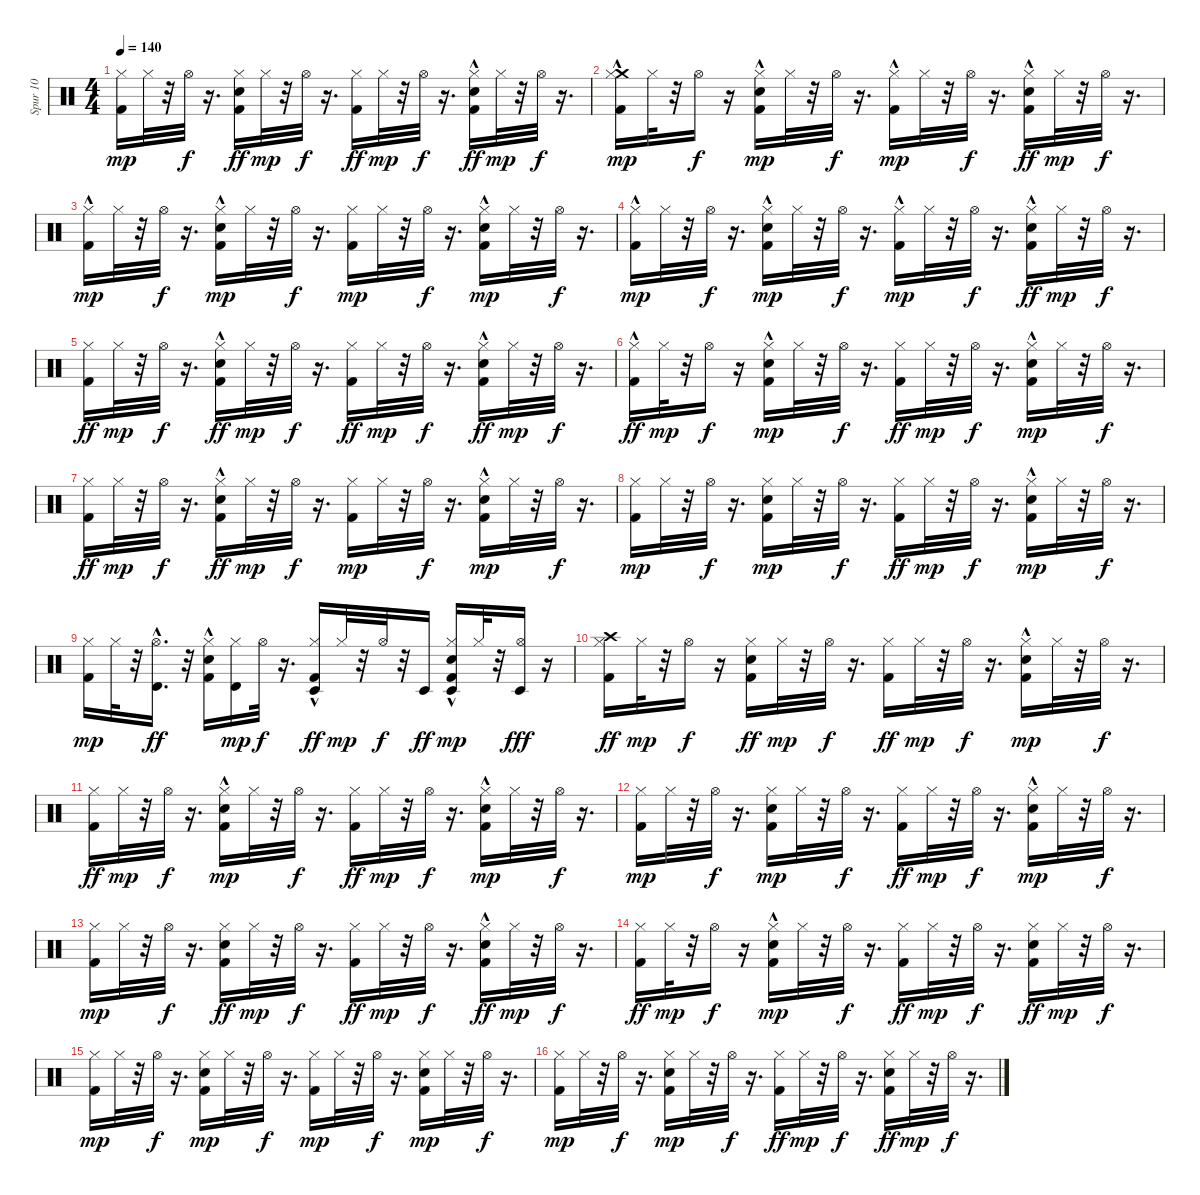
\track ("Spur 10" "Spur 10") {instrument percussion}
\staff {score}
\articulation defaults
\ts (4 4)
\tempo 140
\clef neutral
\ks c
("Kick (hit) 2" "Hi-Hat (closed)").16{dy mp} "Hi-Hat (closed)".32 r.32 "Hi-Hat (open)".32{dy f} r.16{d} ("Hi-Hat (closed)" "Kick (hit) 2" "Electric Snare (hit)").16{dy ff} "Hi-Hat (closed)".32{dy mp} r.32 "Hi-Hat (open)".32{dy f} r.16{d} ("Hi-Hat (closed)" "Kick (hit) 2").16{dy ff} "Hi-Hat (closed)".32{dy mp} r.32 "Hi-Hat (open)".32{dy f} r.16{d} ("Hi-Hat (closed)" "Electric Snare (hit)"{hac} "Kick (hit) 2").16{dy ff} "Hi-Hat (closed)".32{dy mp} r.32 "Hi-Hat (open)".32{dy f} r.16{d} |
("Crash medium (hit)" "Kick (hit) 2"{hac} "Hi-Hat (closed)").16{dy mp} "Hi-Hat (closed)".32 r.32 "Hi-Hat (open)".16{dy f} r.16 ("Kick (hit) 2"{hac} "Electric Snare (hit)"{hac} "Hi-Hat (closed)").16{dy mp} "Hi-Hat (closed)".32 r.32 "Hi-Hat (open)".32{dy f} r.16{d} ("Kick (hit) 2"{hac} "Hi-Hat (closed)").16{dy mp} "Hi-Hat (closed)".32 r.32 "Hi-Hat (open)".32{dy f} r.16{d} ("Electric Snare (hit)" "Hi-Hat (closed)" "Kick (hit) 2"{hac}).16{dy ff} "Hi-Hat (closed)".32{dy mp} r.32 "Hi-Hat (open)".32{dy f} r.16{d} |
("Kick (hit) 2"{hac} "Hi-Hat (closed)").16{dy mp} "Hi-Hat (closed)".32 r.32 "Hi-Hat (open)".32{dy f} r.16{d} ("Kick (hit) 2"{hac} "Hi-Hat (closed)" "Electric Snare (hit)"{hac}).16{dy mp} "Hi-Hat (closed)".32 r.32 "Hi-Hat (open)".32{dy f} r.16{d} ("Kick (hit) 2" "Hi-Hat (closed)").16{dy mp} "Hi-Hat (closed)".32 r.32 "Hi-Hat (open)".32{dy f} r.16{d} ("Electric Snare (hit)"{hac} "Kick (hit) 2"{hac} "Hi-Hat (closed)").16{dy mp} "Hi-Hat (closed)".32 r.32 "Hi-Hat (open)".32{dy f} r.16{d} |
("Kick (hit) 2"{hac} "Hi-Hat (closed)").16{dy mp} "Hi-Hat (closed)".32 r.32 "Hi-Hat (open)".32{dy f} r.16{d} ("Electric Snare (hit)" "Kick (hit) 2"{hac} "Hi-Hat (closed)").16{dy mp} "Hi-Hat (closed)".32 r.32 "Hi-Hat (open)".32{dy f} r.16{d} ("Kick (hit) 2"{hac} "Hi-Hat (closed)").16{dy mp} "Hi-Hat (closed)".32 r.32 "Hi-Hat (open)".32{dy f} r.16{d} ("Hi-Hat (closed)" "Kick (hit) 2" "Electric Snare (hit)"{hac}).16{dy ff} "Hi-Hat (closed)".32{dy mp} r.32 "Hi-Hat (open)".32{dy f} r.16{d} |
("Hi-Hat (closed)" "Kick (hit) 2").16{dy ff} "Hi-Hat (closed)".32{dy mp} r.32 "Hi-Hat (open)".32{dy f} r.16{d} ("Hi-Hat (closed)" "Electric Snare (hit)"{hac} "Kick (hit) 2").16{dy ff} "Hi-Hat (closed)".32{dy mp} r.32 "Hi-Hat (open)".32{dy f} r.16{d} ("Hi-Hat (closed)" "Kick (hit) 2").16{dy ff} "Hi-Hat (closed)".32{dy mp} r.32 "Hi-Hat (open)".32{dy f} r.16{d} ("Hi-Hat (closed)" "Kick (hit) 2"{hac} "Electric Snare (hit)"{hac}).16{dy ff} "Hi-Hat (closed)".32{dy mp} r.32 "Hi-Hat (open)".32{dy f} r.16{d} |
("Hi-Hat (closed)" "Kick (hit) 2"{hac}).16{dy ff} "Hi-Hat (closed)".32{dy mp} r.32 "Hi-Hat (open)".16{dy f} r.16 ("Electric Snare (hit)"{hac} "Kick (hit) 2"{hac} "Hi-Hat (closed)").16{dy mp} "Hi-Hat (closed)".32 r.32 "Hi-Hat (open)".32{dy f} r.16{d} ("Hi-Hat (closed)" "Kick (hit) 2").16{dy ff} "Hi-Hat (closed)".32{dy mp} r.32 "Hi-Hat (open)".32{dy f} r.16{d} ("Kick (hit) 2"{hac} "Hi-Hat (closed)" "Electric Snare (hit)"{hac}).16{dy mp} "Hi-Hat (closed)".32 r.32 "Hi-Hat (open)".32{dy f} r.16{d} |
("Hi-Hat (closed)" "Kick (hit) 2").16{dy ff} "Hi-Hat (closed)".32{dy mp} r.32 "Hi-Hat (open)".32{dy f} r.16{d} ("Hi-Hat (closed)" "Electric Snare (hit)"{hac} "Kick (hit) 2").16{dy ff} "Hi-Hat (closed)".32{dy mp} r.32 "Hi-Hat (open)".32{dy f} r.16{d} ("Kick (hit) 2" "Hi-Hat (closed)").16{dy mp} "Hi-Hat (closed)".32 r.32 "Hi-Hat (open)".32{dy f} r.16{d} ("Kick (hit) 2" "Electric Snare (hit)"{hac} "Hi-Hat (closed)").16{dy mp} "Hi-Hat (closed)".32 r.32 "Hi-Hat (open)".32{dy f} r.16{d} |
("Kick (hit) 2" "Hi-Hat (closed)").16{dy mp} "Hi-Hat (closed)".32 r.32 "Hi-Hat (open)".32{dy f} r.16{d} ("Kick (hit) 2" "Electric Snare (hit)" "Hi-Hat (closed)").16{dy mp} "Hi-Hat (closed)".32 r.32 "Hi-Hat (open)".32{dy f} r.16{d} ("Hi-Hat (closed)" "Kick (hit) 2").16{dy ff} "Hi-Hat (closed)".32{dy mp} r.32 "Hi-Hat (open)".32{dy f} r.16{d} ("Kick (hit) 2" "Hi-Hat (closed)" "Electric Snare (hit)"{hac}).16{dy mp} "Hi-Hat (closed)".32 r.32 "Hi-Hat (open)".32{dy f} r.16{d} |
("Kick (hit) 2" "Hi-Hat (closed)").16{dy mp} "Hi-Hat (closed)".32 r.32 ("Hi-Hat (open)" "Timbale high (hit)"{hac}).16{d dy ff} r.32 ("Hi-Hat (closed)" "Electric Snare (hit)"{hac} "Kick (hit) 2").16 ("Hi-Hat (closed)" "Timbale high (hit)").16{dy mp} "Hi-Hat (open)".32{dy f} r.16{d} ("Timbale low (hit)"{hac} "Hi-Hat (closed)" "Kick (hit) 2").16{dy ff} "Hi-Hat (closed)".32{dy mp} r.32 "Hi-Hat (open)".32{dy f} r.32 "Timbale low (hit)".16{dy ff} ("Kick (hit) 2" "Timbale low (hit)" "Electric Snare (hit)"{hac} "Hi-Hat (closed)").16{dy mp} "Hi-Hat (closed)".32 r.32 ("Timbale low (hit)" "Hi-Hat (open)").16{dy fff} r.16 |
("Hi-Hat (closed)" "Kick (hit) 2" "Crash high (hit)").16{dy ff} "Hi-Hat (closed)".32{dy mp} r.32 "Hi-Hat (open)".16{dy f} r.16 ("Electric Snare (hit)" "Hi-Hat (closed)" "Kick (hit) 2").16{dy ff} "Hi-Hat (closed)".32{dy mp} r.32 "Hi-Hat (open)".32{dy f} r.16{d} ("Hi-Hat (closed)" "Kick (hit) 2").16{dy ff} "Hi-Hat (closed)".32{dy mp} r.32 "Hi-Hat (open)".32{dy f} r.16{d} ("Kick (hit) 2" "Electric Snare (hit)"{hac} "Hi-Hat (closed)").16{dy mp} "Hi-Hat (closed)".32 r.32 "Hi-Hat (open)".32{dy f} r.16{d} |
("Hi-Hat (closed)" "Kick (hit) 2").16{dy ff} "Hi-Hat (closed)".32{dy mp} r.32 "Hi-Hat (open)".32{dy f} r.16{d} ("Kick (hit) 2" "Hi-Hat (closed)" "Electric Snare (hit)"{hac}).16{dy mp} "Hi-Hat (closed)".32 r.32 "Hi-Hat (open)".32{dy f} r.16{d} ("Hi-Hat (closed)" "Kick (hit) 2").16{dy ff} "Hi-Hat (closed)".32{dy mp} r.32 "Hi-Hat (open)".32{dy f} r.16{d} ("Kick (hit) 2" "Electric Snare (hit)"{hac} "Hi-Hat (closed)").16{dy mp} "Hi-Hat (closed)".32 r.32 "Hi-Hat (open)".32{dy f} r.16{d} |
("Kick (hit) 2" "Hi-Hat (closed)").16{dy mp} "Hi-Hat (closed)".32 r.32 "Hi-Hat (open)".32{dy f} r.16{d} ("Kick (hit) 2" "Hi-Hat (closed)" "Electric Snare (hit)").16{dy mp} "Hi-Hat (closed)".32 r.32 "Hi-Hat (open)".32{dy f} r.16{d} ("Hi-Hat (closed)" "Kick (hit) 2").16{dy ff} "Hi-Hat (closed)".32{dy mp} r.32 "Hi-Hat (open)".32{dy f} r.16{d} ("Kick (hit) 2" "Hi-Hat (closed)" "Electric Snare (hit)"{hac}).16{dy mp} "Hi-Hat (closed)".32 r.32 "Hi-Hat (open)".32{dy f} r.16{d} |
("Kick (hit) 2" "Hi-Hat (closed)").16{dy mp} "Hi-Hat (closed)".32 r.32 "Hi-Hat (open)".32{dy f} r.16{d} ("Hi-Hat (closed)" "Electric Snare (hit)" "Kick (hit) 2").16{dy ff} "Hi-Hat (closed)".32{dy mp} r.32 "Hi-Hat (open)".32{dy f} r.16{d} ("Hi-Hat (closed)" "Kick (hit) 2").16{dy ff} "Hi-Hat (closed)".32{dy mp} r.32 "Hi-Hat (open)".32{dy f} r.16{d} ("Hi-Hat (closed)" "Electric Snare (hit)"{hac} "Kick (hit) 2").16{dy ff} "Hi-Hat (closed)".32{dy mp} r.32 "Hi-Hat (open)".32{dy f} r.16{d} |
("Hi-Hat (closed)" "Kick (hit) 2").16{dy ff} "Hi-Hat (closed)".32{dy mp} r.32 "Hi-Hat (open)".16{dy f} r.16 ("Kick (hit) 2" "Electric Snare (hit)"{hac} "Hi-Hat (closed)").16{dy mp} "Hi-Hat (closed)".32 r.32 "Hi-Hat (open)".32{dy f} r.16{d} ("Hi-Hat (closed)" "Kick (hit) 2").16{dy ff} "Hi-Hat (closed)".32{dy mp} r.32 "Hi-Hat (open)".32{dy f} r.16{d} ("Hi-Hat (closed)" "Electric Snare (hit)" "Kick (hit) 2").16{dy ff} "Hi-Hat (closed)".32{dy mp} r.32 "Hi-Hat (open)".32{dy f} r.16{d} |
("Kick (hit) 2" "Hi-Hat (closed)").16{dy mp} "Hi-Hat (closed)".32 r.32 "Hi-Hat (open)".32{dy f} r.16{d} ("Electric Snare (hit)" "Kick (hit) 2" "Hi-Hat (closed)").16{dy mp} "Hi-Hat (closed)".32 r.32 "Hi-Hat (open)".32{dy f} r.16{d} ("Kick (hit) 2" "Hi-Hat (closed)").16{dy mp} "Hi-Hat (closed)".32 r.32 "Hi-Hat (open)".32{dy f} r.16{d} ("Kick (hit) 2" "Electric Snare (hit)" "Hi-Hat (closed)").16{dy mp} "Hi-Hat (closed)".32 r.32 "Hi-Hat (open)".32{dy f} r.16{d} |
("Kick (hit) 2" "Hi-Hat (closed)").16{dy mp} "Hi-Hat (closed)".32 r.32 "Hi-Hat (open)".32{dy f} r.16{d} ("Kick (hit) 2" "Hi-Hat (closed)" "Electric Snare (hit)").16{dy mp} "Hi-Hat (closed)".32 r.32 "Hi-Hat (open)".32{dy f} r.16{d} ("Hi-Hat (closed)" "Kick (hit) 2").16{dy ff} "Hi-Hat (closed)".32{dy mp} r.32 "Hi-Hat (open)".32{dy f} r.16{d} ("Electric Snare (hit)" "Hi-Hat (closed)" "Kick (hit) 2").16{dy ff} "Hi-Hat (closed)".32{dy mp} r.32 "Hi-Hat (open)".32{dy f} r.16{d}
